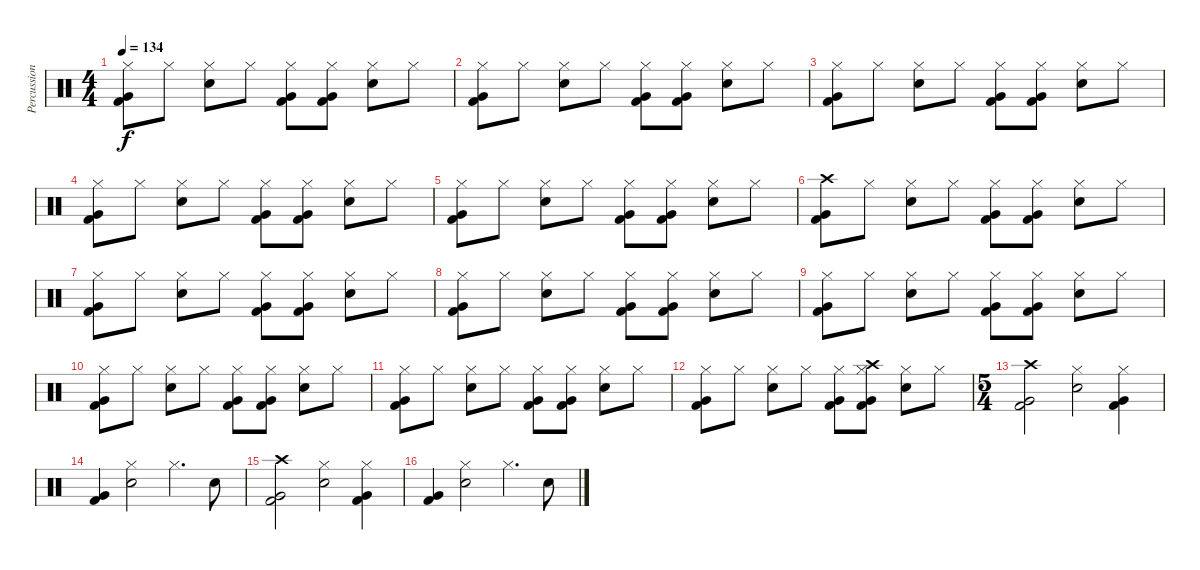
\track ("Percussion" "Percussion") {instrument percussion}
\staff {score}
\articulation defaults
\ts (4 4)
\tempo 134
\clef neutral
\ks c
("Hi-Hat (closed)" "Very Low Tom (hit)" "Kick (hit) 2").8{dy f} "Hi-Hat (closed)".8 ("Hi-Hat (closed)" "Electric Snare (hit)").8 "Hi-Hat (closed)".8 ("Hi-Hat (closed)" "Very Low Tom (hit)" "Kick (hit) 2").8 ("Hi-Hat (closed)" "Very Low Tom (hit)" "Kick (hit) 2").8 ("Hi-Hat (closed)" "Electric Snare (hit)").8 "Hi-Hat (closed)".8 |
("Hi-Hat (closed)" "Very Low Tom (hit)" "Kick (hit) 2").8 "Hi-Hat (closed)".8 ("Hi-Hat (closed)" "Electric Snare (hit)").8 "Hi-Hat (closed)".8 ("Hi-Hat (closed)" "Very Low Tom (hit)" "Kick (hit) 2").8 ("Hi-Hat (closed)" "Very Low Tom (hit)" "Kick (hit) 2").8 ("Hi-Hat (closed)" "Electric Snare (hit)").8 "Hi-Hat (closed)".8 |
("Hi-Hat (closed)" "Very Low Tom (hit)" "Kick (hit) 2").8 "Hi-Hat (closed)".8 ("Hi-Hat (closed)" "Electric Snare (hit)").8 "Hi-Hat (closed)".8 ("Hi-Hat (closed)" "Very Low Tom (hit)" "Kick (hit) 2").8 ("Hi-Hat (closed)" "Very Low Tom (hit)" "Kick (hit) 2").8 ("Hi-Hat (closed)" "Electric Snare (hit)").8 "Hi-Hat (closed)".8 |
("Hi-Hat (closed)" "Very Low Tom (hit)" "Kick (hit) 2").8 "Hi-Hat (closed)".8 ("Hi-Hat (closed)" "Electric Snare (hit)").8 "Hi-Hat (closed)".8 ("Hi-Hat (closed)" "Very Low Tom (hit)" "Kick (hit) 2").8 ("Hi-Hat (closed)" "Very Low Tom (hit)" "Kick (hit) 2").8 ("Hi-Hat (closed)" "Electric Snare (hit)").8 "Hi-Hat (closed)".8 |
("Hi-Hat (closed)" "Very Low Tom (hit)" "Kick (hit) 2").8 "Hi-Hat (closed)".8 ("Hi-Hat (closed)" "Electric Snare (hit)").8 "Hi-Hat (closed)".8 ("Hi-Hat (closed)" "Very Low Tom (hit)" "Kick (hit) 2").8 ("Hi-Hat (closed)" "Very Low Tom (hit)" "Kick (hit) 2").8 ("Hi-Hat (closed)" "Electric Snare (hit)").8 "Hi-Hat (closed)".8 |
("Crash high (hit)" "Very Low Tom (hit)" "Kick (hit) 2").8 "Hi-Hat (closed)".8 ("Hi-Hat (closed)" "Electric Snare (hit)").8 "Hi-Hat (closed)".8 ("Hi-Hat (closed)" "Very Low Tom (hit)" "Kick (hit) 2").8 ("Hi-Hat (closed)" "Very Low Tom (hit)" "Kick (hit) 2").8 ("Hi-Hat (closed)" "Electric Snare (hit)").8 "Hi-Hat (closed)".8 |
("Hi-Hat (closed)" "Very Low Tom (hit)" "Kick (hit) 2").8 "Hi-Hat (closed)".8 ("Hi-Hat (closed)" "Electric Snare (hit)").8 "Hi-Hat (closed)".8 ("Hi-Hat (closed)" "Very Low Tom (hit)" "Kick (hit) 2").8 ("Hi-Hat (closed)" "Very Low Tom (hit)" "Kick (hit) 2").8 ("Hi-Hat (closed)" "Electric Snare (hit)").8 "Hi-Hat (closed)".8 |
("Hi-Hat (closed)" "Very Low Tom (hit)" "Kick (hit) 2").8 "Hi-Hat (closed)".8 ("Hi-Hat (closed)" "Electric Snare (hit)").8 "Hi-Hat (closed)".8 ("Hi-Hat (closed)" "Very Low Tom (hit)" "Kick (hit) 2").8 ("Hi-Hat (closed)" "Very Low Tom (hit)" "Kick (hit) 2").8 ("Hi-Hat (closed)" "Electric Snare (hit)").8 "Hi-Hat (closed)".8 |
("Hi-Hat (closed)" "Very Low Tom (hit)" "Kick (hit) 2").8 "Hi-Hat (closed)".8 ("Hi-Hat (closed)" "Electric Snare (hit)").8 "Hi-Hat (closed)".8 ("Hi-Hat (closed)" "Very Low Tom (hit)" "Kick (hit) 2").8 ("Hi-Hat (closed)" "Very Low Tom (hit)" "Kick (hit) 2").8 ("Hi-Hat (closed)" "Electric Snare (hit)").8 "Hi-Hat (closed)".8 |
("Hi-Hat (closed)" "Very Low Tom (hit)" "Kick (hit) 2").8 "Hi-Hat (closed)".8 ("Hi-Hat (closed)" "Electric Snare (hit)").8 "Hi-Hat (closed)".8 ("Hi-Hat (closed)" "Very Low Tom (hit)" "Kick (hit) 2").8 ("Hi-Hat (closed)" "Very Low Tom (hit)" "Kick (hit) 2").8 ("Hi-Hat (closed)" "Electric Snare (hit)").8 "Hi-Hat (closed)".8 |
("Hi-Hat (closed)" "Very Low Tom (hit)" "Kick (hit) 2").8 "Hi-Hat (closed)".8 ("Hi-Hat (closed)" "Electric Snare (hit)").8 "Hi-Hat (closed)".8 ("Hi-Hat (closed)" "Very Low Tom (hit)" "Kick (hit) 2").8 ("Hi-Hat (closed)" "Very Low Tom (hit)" "Kick (hit) 2").8 ("Hi-Hat (closed)" "Electric Snare (hit)").8 "Hi-Hat (closed)".8 |
("Hi-Hat (closed)" "Very Low Tom (hit)" "Kick (hit) 2").8 "Hi-Hat (closed)".8 ("Hi-Hat (closed)" "Electric Snare (hit)").8 "Hi-Hat (closed)".8 ("Hi-Hat (closed)" "Very Low Tom (hit)" "Kick (hit) 2").8 ("Hi-Hat (closed)" "Crash high (hit)" "Very Low Tom (hit)" "Kick (hit) 2").8 ("Hi-Hat (closed)" "Electric Snare (hit)").8 "Hi-Hat (closed)".8 |
\ts (5 4)
("Crash high (hit)" "Very Low Tom (hit)" "Kick (hit) 2").2 ("Hi-Hat (closed)" "Electric Snare (hit)").2 ("Hi-Hat (closed)" "Very Low Tom (hit)" "Kick (hit) 2").4 |
("Very Low Tom (hit)" "Kick (hit) 2").4 ("Hi-Hat (closed)" "Electric Snare (hit)").2 "Hi-Hat (closed)".4{d} "Electric Snare (hit)".8 |
("Crash high (hit)" "Very Low Tom (hit)" "Kick (hit) 2").2 ("Hi-Hat (closed)" "Electric Snare (hit)").2 ("Hi-Hat (closed)" "Very Low Tom (hit)" "Kick (hit) 2").4 |
("Very Low Tom (hit)" "Kick (hit) 2").4 ("Hi-Hat (closed)" "Electric Snare (hit)").2 "Hi-Hat (closed)".4{d} "Electric Snare (hit)".8
